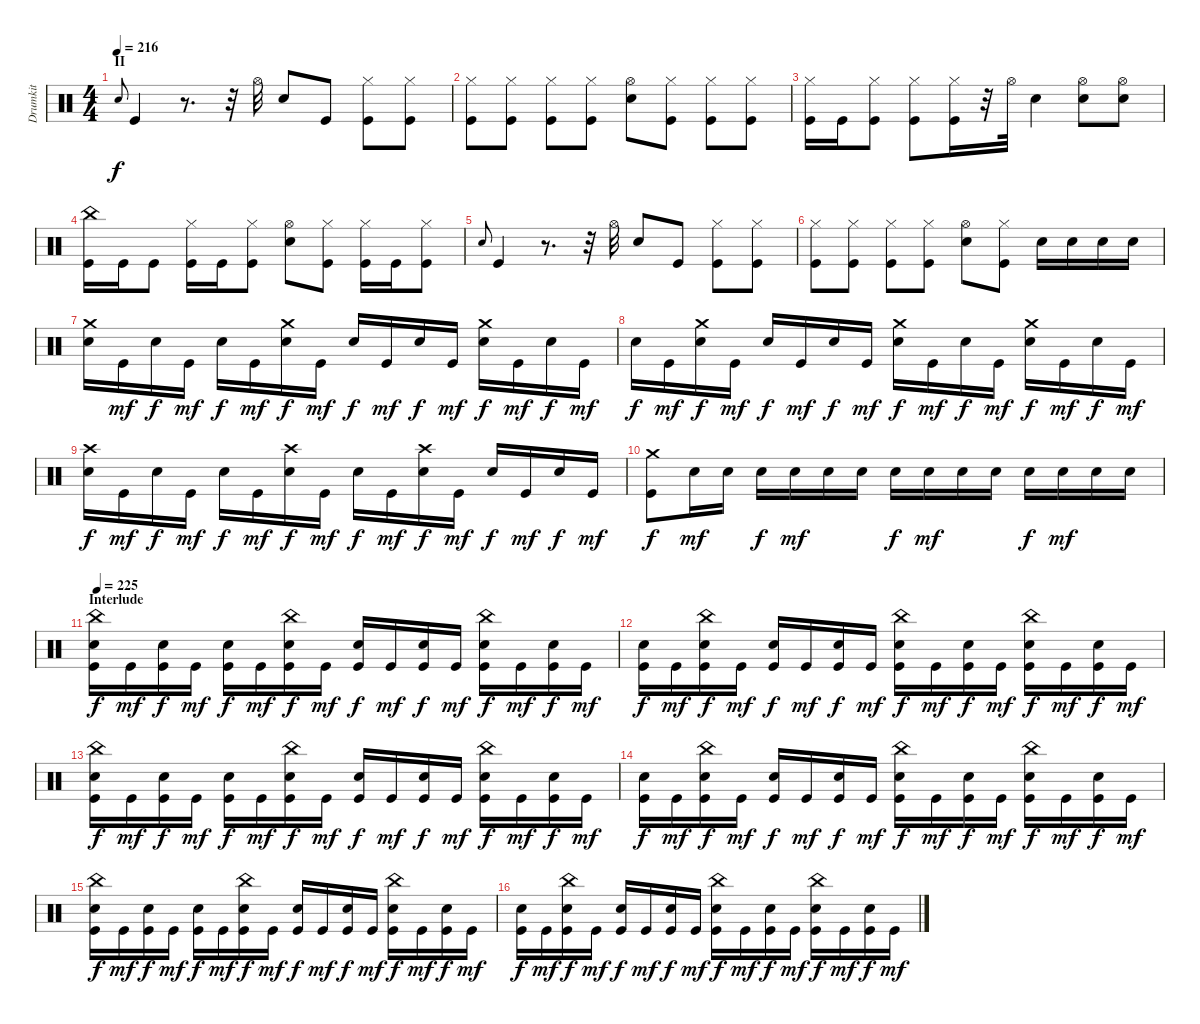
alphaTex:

\track ("Drumkit" "Drumkit") {instrument percussion}
\staff {score}
\articulation defaults
\ts (4 4)
\section ("" "II")
\tempo 216
\clef neutral
\ks c "Snare (hit)".8{gr onbeat dy f} "Kick (hit)".4
r.8{d} r.32 "Hi-Hat (open)".32 "Snare (hit) 2".8 "Kick (hit)".8 ("Kick (hit)" "Hi-Hat (closed)").8 ("Kick (hit)" "Hi-Hat (closed)").8 |
("Kick (hit)" "Hi-Hat (closed)").8 ("Kick (hit)" "Hi-Hat (closed)").8 ("Kick (hit)" "Hi-Hat (closed)").8 ("Kick (hit)" "Hi-Hat (closed)").8 ("Snare (hit) 2" "Hi-Hat (open)").8 ("Kick (hit)" "Hi-Hat (closed)").8 ("Kick (hit)" "Hi-Hat (closed)").8 ("Kick (hit)" "Hi-Hat (closed)").8 |
("Kick (hit)" "Hi-Hat (closed)").16 "Kick (hit)".16 ("Kick (hit)" "Hi-Hat (closed)").8 ("Kick (hit)" "Hi-Hat (closed)").8 ("Kick (hit)" "Hi-Hat (closed)").16 r.32 "Hi-Hat (open)".32 "Snare (hit) 2".4 ("Snare (hit) 2" "Hi-Hat (open)").8 ("Snare (hit) 2" "Hi-Hat (open)").8 |
("Kick (hit)" "China (hit)").16 "Kick (hit)".16 "Kick (hit)".8 ("Kick (hit)" "Hi-Hat (closed)").16 "Kick (hit)".16 ("Kick (hit)" "Hi-Hat (closed)").8 ("Hi-Hat (open)" "Snare (hit) 2").8 ("Kick (hit)" "Hi-Hat (closed)").8 ("Kick (hit)" "Hi-Hat (closed)").16 "Kick (hit)".16 ("Kick (hit)" "Hi-Hat (closed)").8 |
"Snare (hit)".8{gr onbeat} "Kick (hit)".4 r.8{d} r.32 "Hi-Hat (open)".32 "Snare (hit) 2".8 "Kick (hit)".8 ("Kick (hit)" "Hi-Hat (closed)").8 ("Kick (hit)" "Hi-Hat (closed)").8 |
("Kick (hit)" "Hi-Hat (closed)").8 ("Kick (hit)" "Hi-Hat (closed)").8 ("Kick (hit)" "Hi-Hat (closed)").8 ("Kick (hit)" "Hi-Hat (closed)").8 ("Snare (hit) 2" "Hi-Hat (open)").8 ("Kick (hit)" "Hi-Hat (closed)").8 "Snare (hit) 2".16 "Snare (hit) 2".16 "Snare (hit) 2".16 "Snare (hit) 2".16 |
("Snare (hit) 2" "Crash medium (hit)").16 "Kick (hit)".16{dy mf} "Snare (hit) 2".16{dy f} "Kick (hit)".16{dy mf} "Snare (hit) 2".16{dy f} "Kick (hit)".16{dy mf} ("Snare (hit) 2" "Crash medium (hit)").16{dy f} "Kick (hit)".16{dy mf} "Snare (hit) 2".16{dy f} "Kick (hit)".16{dy mf} "Snare (hit) 2".16{dy f} "Kick (hit)".16{dy mf} ("Snare (hit) 2" "Crash medium (hit)").16{dy f} "Kick (hit)".16{dy mf} "Snare (hit) 2".16{dy f} "Kick (hit)".16{dy mf} |
"Snare (hit) 2".16{dy f} "Kick (hit)".16{dy mf} ("Snare (hit) 2" "Crash medium (hit)").16{dy f} "Kick (hit)".16{dy mf} "Snare (hit) 2".16{dy f} "Kick (hit)".16{dy mf} "Snare (hit) 2".16{dy f} "Kick (hit)".16{dy mf} ("Snare (hit) 2" "Crash medium (hit)").16{dy f} "Kick (hit)".16{dy mf} "Snare (hit) 2".16{dy f} "Kick (hit)".16{dy mf} ("Snare (hit) 2" "Crash medium (hit)").16{dy f} "Kick (hit)".16{dy mf} "Snare (hit) 2".16{dy f} "Kick (hit)".16{dy mf} |
("Snare (hit) 2" "Crash high (hit)").16{dy f} "Kick (hit)".16{dy mf} "Snare (hit) 2".16{dy f} "Kick (hit)".16{dy mf} "Snare (hit) 2".16{dy f} "Kick (hit)".16{dy mf} ("Snare (hit) 2" "Crash high (hit)").16{dy f} "Kick (hit)".16{dy mf} "Snare (hit) 2".16{dy f} "Kick (hit)".16{dy mf} ("Snare (hit) 2" "Crash high (hit)").16{dy f} "Kick (hit)".16{dy mf} "Snare (hit) 2".16{dy f} "Kick (hit)".16{dy mf} "Snare (hit) 2".16{dy f} "Kick (hit)".16{dy mf} |
("Kick (hit)" "Crash medium (hit)").8{dy f} "Snare (hit) 2".16{dy mf} "Snare (hit) 2".16 "Snare (hit) 2".16{dy f} "Snare (hit) 2".16{dy mf} "Snare (hit) 2".16 "Snare (hit) 2".16 "Snare (hit) 2".16{dy f} "Snare (hit) 2".16{dy mf} "Snare (hit) 2".16 "Snare (hit) 2".16 "Snare (hit) 2".16{dy f} "Snare (hit) 2".16{dy mf} "Snare (hit) 2".16 "Snare (hit) 2".16 |
\section ("" "Interlude")
\tempo 225
("Snare (hit) 2" "Kick (hit)" "China (hit)").16{dy f} "Kick (hit)".16{dy mf} ("Snare (hit) 2" "Kick (hit)").16{dy f} "Kick (hit)".16{dy mf} ("Snare (hit) 2" "Kick (hit)").16{dy f} "Kick (hit)".16{dy mf} ("Snare (hit) 2" "Kick (hit)" "China (hit)").16{dy f} "Kick (hit)".16{dy mf} ("Snare (hit) 2" "Kick (hit)").16{dy f} "Kick (hit)".16{dy mf} ("Snare (hit) 2" "Kick (hit)").16{dy f} "Kick (hit)".16{dy mf} ("Snare (hit) 2" "Kick (hit)" "China (hit)").16{dy f} "Kick (hit)".16{dy mf} ("Snare (hit) 2" "Kick (hit)").16{dy f} "Kick (hit)".16{dy mf} |
("Snare (hit) 2" "Kick (hit)").16{dy f} "Kick (hit)".16{dy mf} ("Snare (hit) 2" "Kick (hit)" "China (hit)").16{dy f} "Kick (hit)".16{dy mf} ("Snare (hit) 2" "Kick (hit)").16{dy f} "Kick (hit)".16{dy mf} ("Snare (hit) 2" "Kick (hit)").16{dy f} "Kick (hit)".16{dy mf} ("Snare (hit) 2" "Kick (hit)" "China (hit)").16{dy f} "Kick (hit)".16{dy mf} ("Snare (hit) 2" "Kick (hit)").16{dy f} "Kick (hit)".16{dy mf} ("Snare (hit) 2" "Kick (hit)" "China (hit)").16{dy f} "Kick (hit)".16{dy mf} ("Snare (hit) 2" "Kick (hit)").16{dy f} "Kick (hit)".16{dy mf} |
("Snare (hit) 2" "Kick (hit)" "China (hit)").16{dy f} "Kick (hit)".16{dy mf} ("Snare (hit) 2" "Kick (hit)").16{dy f} "Kick (hit)".16{dy mf} ("Snare (hit) 2" "Kick (hit)").16{dy f} "Kick (hit)".16{dy mf} ("Snare (hit) 2" "Kick (hit)" "China (hit)").16{dy f} "Kick (hit)".16{dy mf} ("Snare (hit) 2" "Kick (hit)").16{dy f} "Kick (hit)".16{dy mf} ("Snare (hit) 2" "Kick (hit)").16{dy f} "Kick (hit)".16{dy mf} ("Snare (hit) 2" "Kick (hit)" "China (hit)").16{dy f} "Kick (hit)".16{dy mf} ("Snare (hit) 2" "Kick (hit)").16{dy f} "Kick (hit)".16{dy mf} |
("Snare (hit) 2" "Kick (hit)").16{dy f} "Kick (hit)".16{dy mf} ("Snare (hit) 2" "Kick (hit)" "China (hit)").16{dy f} "Kick (hit)".16{dy mf} ("Snare (hit) 2" "Kick (hit)").16{dy f} "Kick (hit)".16{dy mf} ("Snare (hit) 2" "Kick (hit)").16{dy f} "Kick (hit)".16{dy mf} ("Snare (hit) 2" "Kick (hit)" "China (hit)").16{dy f} "Kick (hit)".16{dy mf} ("Snare (hit) 2" "Kick (hit)").16{dy f} "Kick (hit)".16{dy mf} ("Snare (hit) 2" "Kick (hit)" "China (hit)").16{dy f} "Kick (hit)".16{dy mf} ("Snare (hit) 2" "Kick (hit)").16{dy f} "Kick (hit)".16{dy mf} |
("Snare (hit) 2" "Kick (hit)" "China (hit)").16{dy f} "Kick (hit)".16{dy mf} ("Snare (hit) 2" "Kick (hit)").16{dy f} "Kick (hit)".16{dy mf} ("Snare (hit) 2" "Kick (hit)").16{dy f} "Kick (hit)".16{dy mf} ("Snare (hit) 2" "Kick (hit)" "China (hit)").16{dy f} "Kick (hit)".16{dy mf} ("Snare (hit) 2" "Kick (hit)").16{dy f} "Kick (hit)".16{dy mf} ("Snare (hit) 2" "Kick (hit)").16{dy f} "Kick (hit)".16{dy mf} ("Snare (hit) 2" "Kick (hit)" "China (hit)").16{dy f} "Kick (hit)".16{dy mf} ("Snare (hit) 2" "Kick (hit)").16{dy f} "Kick (hit)".16{dy mf} |
("Snare (hit) 2" "Kick (hit)").16{dy f} "Kick (hit)".16{dy mf} ("Snare (hit) 2" "Kick (hit)" "China (hit)").16{dy f} "Kick (hit)".16{dy mf} ("Snare (hit) 2" "Kick (hit)").16{dy f} "Kick (hit)".16{dy mf} ("Snare (hit) 2" "Kick (hit)").16{dy f} "Kick (hit)".16{dy mf} ("Snare (hit) 2" "Kick (hit)" "China (hit)").16{dy f} "Kick (hit)".16{dy mf} ("Snare (hit) 2" "Kick (hit)").16{dy f} "Kick (hit)".16{dy mf} ("Snare (hit) 2" "Kick (hit)" "China (hit)").16{dy f} "Kick (hit)".16{dy mf} ("Snare (hit) 2" "Kick (hit)").16{dy f} "Kick (hit)".16{dy mf}
